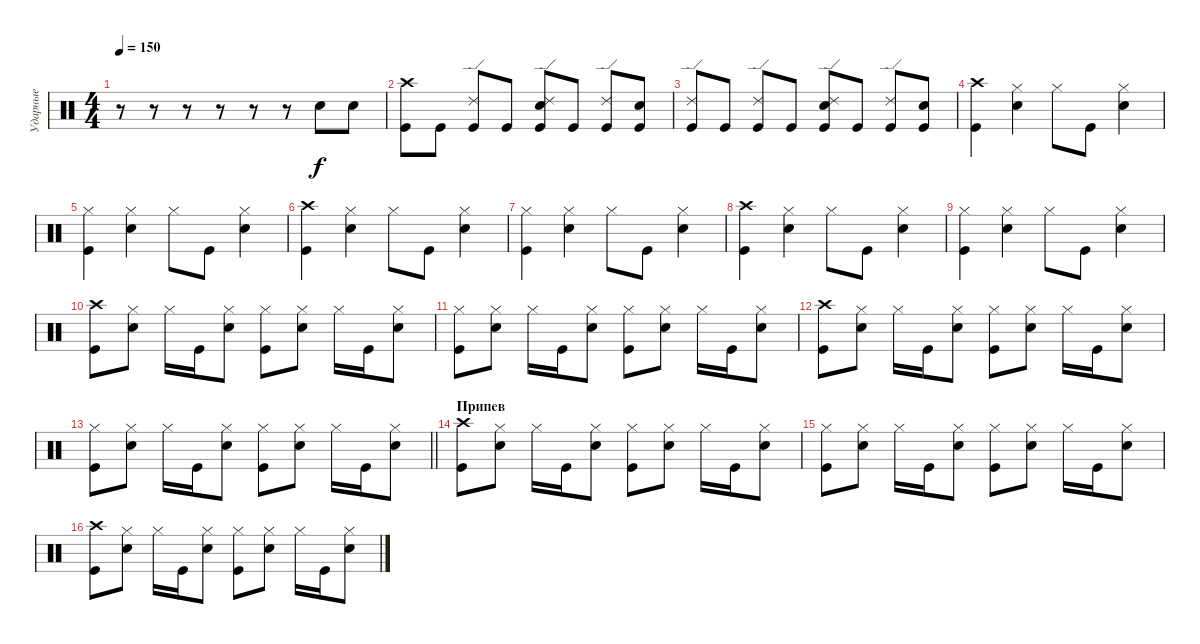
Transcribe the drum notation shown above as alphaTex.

\track ("Ударные" "Ударные") {instrument percussion}
\staff {score}
\articulation defaults
\ts (4 4)
\tempo 150
\clef neutral
\ks c
r.8{dy f} r.8 r.8 r.8 r.8 r.8 "Snare (hit) 2".8 "Snare (hit) 2".8 |
("Crash high (hit)" "Kick (hit)").8 "Kick (hit)".8 ("Ride (edge) 2" "Kick (hit)").8 "Kick (hit)".8 ("Ride (edge) 2" "Snare (hit) 2" "Kick (hit)").8 "Kick (hit)".8 ("Ride (edge) 2" "Kick (hit)").8 ("Snare (hit) 2" "Kick (hit)").8 |
("Ride (edge) 2" "Kick (hit)").8 "Kick (hit)".8 ("Ride (edge) 2" "Kick (hit)").8 "Kick (hit)".8 ("Ride (edge) 2" "Snare (hit) 2" "Kick (hit)").8 "Kick (hit)".8 ("Ride (edge) 2" "Kick (hit)").8 ("Snare (hit) 2" "Kick (hit)").8 |
("Crash high (hit)" "Kick (hit)").4 ("Hi-Hat (closed)" "Snare (hit) 2").4 "Hi-Hat (closed)".8 "Kick (hit)".8 ("Hi-Hat (closed)" "Snare (hit) 2").4 |
("Hi-Hat (closed)" "Kick (hit)").4 ("Hi-Hat (closed)" "Snare (hit) 2").4 "Hi-Hat (closed)".8 "Kick (hit)".8 ("Hi-Hat (closed)" "Snare (hit) 2").4 |
("Crash high (hit)" "Kick (hit)").4 ("Hi-Hat (closed)" "Snare (hit) 2").4 "Hi-Hat (closed)".8 "Kick (hit)".8 ("Hi-Hat (closed)" "Snare (hit) 2").4 |
("Hi-Hat (closed)" "Kick (hit)").4 ("Hi-Hat (closed)" "Snare (hit) 2").4 "Hi-Hat (closed)".8 "Kick (hit)".8 ("Hi-Hat (closed)" "Snare (hit) 2").4 |
("Crash high (hit)" "Kick (hit)").4 ("Hi-Hat (closed)" "Snare (hit) 2").4 "Hi-Hat (closed)".8 "Kick (hit)".8 ("Hi-Hat (closed)" "Snare (hit) 2").4 |
("Hi-Hat (closed)" "Kick (hit)").4 ("Hi-Hat (closed)" "Snare (hit) 2").4 "Hi-Hat (closed)".8 "Kick (hit)".8 ("Hi-Hat (closed)" "Snare (hit) 2").4 |
("Crash high (hit)" "Kick (hit)").8 ("Hi-Hat (closed)" "Snare (hit) 2").8 "Hi-Hat (closed)".16 "Kick (hit)".16 ("Hi-Hat (closed)" "Snare (hit) 2").8 ("Hi-Hat (closed)" "Kick (hit)").8 ("Hi-Hat (closed)" "Snare (hit) 2").8 "Hi-Hat (closed)".16 "Kick (hit)".16 ("Hi-Hat (closed)" "Snare (hit) 2").8 |
("Hi-Hat (closed)" "Kick (hit)").8 ("Hi-Hat (closed)" "Snare (hit) 2").8 "Hi-Hat (closed)".16 "Kick (hit)".16 ("Hi-Hat (closed)" "Snare (hit) 2").8 ("Hi-Hat (closed)" "Kick (hit)").8 ("Hi-Hat (closed)" "Snare (hit) 2").8 "Hi-Hat (closed)".16 "Kick (hit)".16 ("Hi-Hat (closed)" "Snare (hit) 2").8 |
("Crash high (hit)" "Kick (hit)").8 ("Hi-Hat (closed)" "Snare (hit) 2").8 "Hi-Hat (closed)".16 "Kick (hit)".16 ("Hi-Hat (closed)" "Snare (hit) 2").8 ("Hi-Hat (closed)" "Kick (hit)").8 ("Hi-Hat (closed)" "Snare (hit) 2").8 "Hi-Hat (closed)".16 "Kick (hit)".16 ("Hi-Hat (closed)" "Snare (hit) 2").8 |
\barLineRight lightlight
("Hi-Hat (closed)" "Kick (hit)").8 ("Hi-Hat (closed)" "Snare (hit) 2").8 "Hi-Hat (closed)".16 "Kick (hit)".16 ("Hi-Hat (closed)" "Snare (hit) 2").8 ("Hi-Hat (closed)" "Kick (hit)").8 ("Hi-Hat (closed)" "Snare (hit) 2").8 "Hi-Hat (closed)".16 "Kick (hit)".16 ("Hi-Hat (closed)" "Snare (hit) 2").8 |
\section ("" "Припев")
("Crash high (hit)" "Kick (hit)").8 ("Hi-Hat (closed)" "Snare (hit) 2").8 "Hi-Hat (closed)".16 "Kick (hit)".16 ("Hi-Hat (closed)" "Snare (hit) 2").8 ("Hi-Hat (closed)" "Kick (hit)").8 ("Hi-Hat (closed)" "Snare (hit) 2").8 "Hi-Hat (closed)".16 "Kick (hit)".16 ("Hi-Hat (closed)" "Snare (hit) 2").8 |
("Hi-Hat (closed)" "Kick (hit)").8 ("Hi-Hat (closed)" "Snare (hit) 2").8 "Hi-Hat (closed)".16 "Kick (hit)".16 ("Hi-Hat (closed)" "Snare (hit) 2").8 ("Hi-Hat (closed)" "Kick (hit)").8 ("Hi-Hat (closed)" "Snare (hit) 2").8 "Hi-Hat (closed)".16 "Kick (hit)".16 ("Hi-Hat (closed)" "Snare (hit) 2").8 |
("Crash high (hit)" "Kick (hit)").8 ("Hi-Hat (closed)" "Snare (hit) 2").8 "Hi-Hat (closed)".16 "Kick (hit)".16 ("Hi-Hat (closed)" "Snare (hit) 2").8 ("Hi-Hat (closed)" "Kick (hit)").8 ("Hi-Hat (closed)" "Snare (hit) 2").8 "Hi-Hat (closed)".16 "Kick (hit)".16 ("Hi-Hat (closed)" "Snare (hit) 2").8
